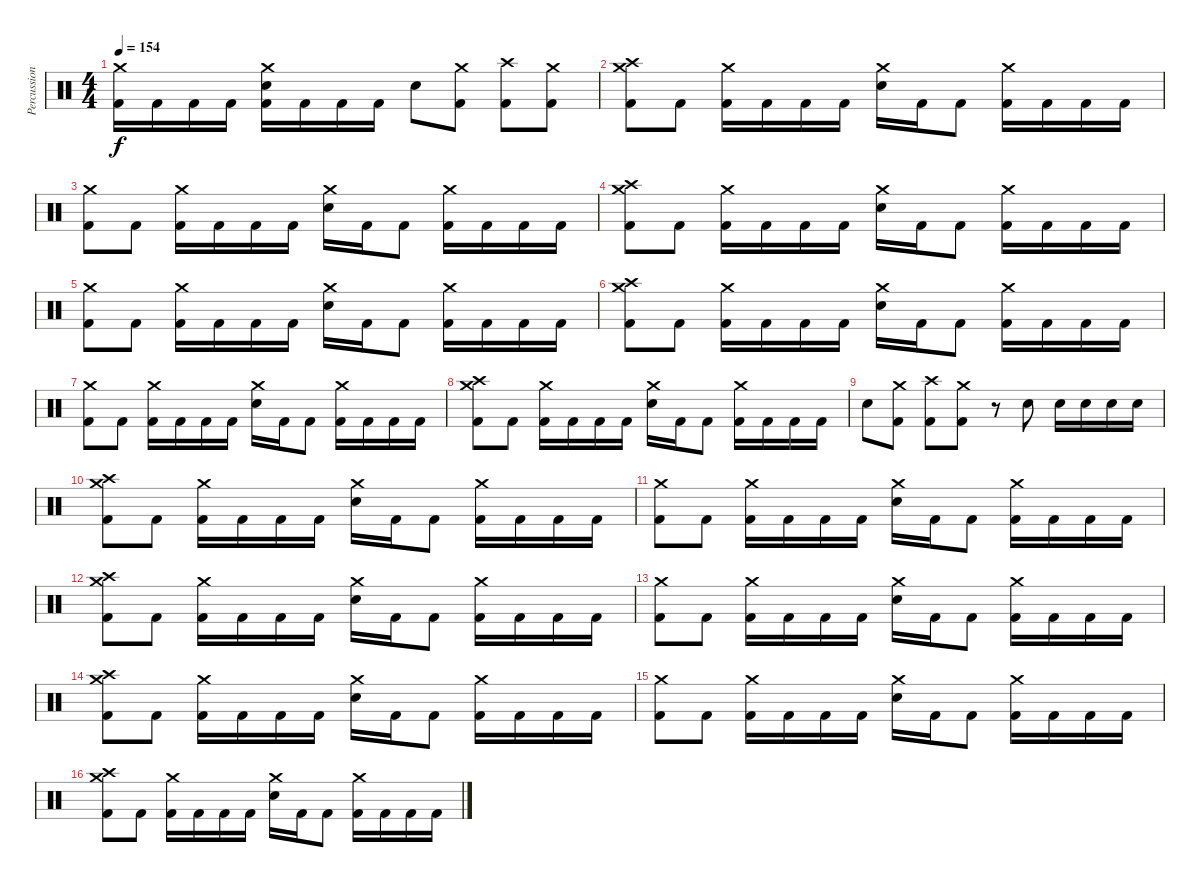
\track ("Percussion" "Percussion") {instrument percussion bank 128}
\staff {score}
\articulation defaults
\ts (4 4)
\tempo 154
\clef neutral
\ks c
("Crash medium (hit)" "Kick (hit) 2").16{dy f} "Kick (hit) 2".16 "Kick (hit) 2".16 "Kick (hit) 2".16 ("Crash medium (hit)" "Snare (hit) 2" "Kick (hit) 2").16 "Kick (hit) 2".16 "Kick (hit) 2".16 "Kick (hit) 2".16 "Snare (hit) 2".8 ("Crash medium (hit)" "Kick (hit) 2").8 ("Crash high (hit)" "Kick (hit) 2").8 ("Crash medium (hit)" "Kick (hit) 2").8 |
("Crash high (hit)" "Crash medium (hit)" "Kick (hit) 2").8 "Kick (hit) 2".8 ("Crash medium (hit)" "Kick (hit) 2").16 "Kick (hit) 2".16 "Kick (hit) 2".16 "Kick (hit) 2".16 ("Crash medium (hit)" "Snare (hit) 2").16 "Kick (hit) 2".16 "Kick (hit) 2".8 ("Crash medium (hit)" "Kick (hit) 2").16 "Kick (hit) 2".16 "Kick (hit) 2".16 "Kick (hit) 2".16 |
("Crash medium (hit)" "Kick (hit) 2").8 "Kick (hit) 2".8 ("Crash medium (hit)" "Kick (hit) 2").16 "Kick (hit) 2".16 "Kick (hit) 2".16 "Kick (hit) 2".16 ("Crash medium (hit)" "Snare (hit) 2").16 "Kick (hit) 2".16 "Kick (hit) 2".8 ("Crash medium (hit)" "Kick (hit) 2").16 "Kick (hit) 2".16 "Kick (hit) 2".16 "Kick (hit) 2".16 |
("Crash high (hit)" "Crash medium (hit)" "Kick (hit) 2").8 "Kick (hit) 2".8 ("Crash medium (hit)" "Kick (hit) 2").16 "Kick (hit) 2".16 "Kick (hit) 2".16 "Kick (hit) 2".16 ("Crash medium (hit)" "Snare (hit) 2").16 "Kick (hit) 2".16 "Kick (hit) 2".8 ("Crash medium (hit)" "Kick (hit) 2").16 "Kick (hit) 2".16 "Kick (hit) 2".16 "Kick (hit) 2".16 |
("Crash medium (hit)" "Kick (hit) 2").8 "Kick (hit) 2".8 ("Crash medium (hit)" "Kick (hit) 2").16 "Kick (hit) 2".16 "Kick (hit) 2".16 "Kick (hit) 2".16 ("Crash medium (hit)" "Snare (hit) 2").16 "Kick (hit) 2".16 "Kick (hit) 2".8 ("Crash medium (hit)" "Kick (hit) 2").16 "Kick (hit) 2".16 "Kick (hit) 2".16 "Kick (hit) 2".16 |
("Crash high (hit)" "Crash medium (hit)" "Kick (hit) 2").8 "Kick (hit) 2".8 ("Crash medium (hit)" "Kick (hit) 2").16 "Kick (hit) 2".16 "Kick (hit) 2".16 "Kick (hit) 2".16 ("Crash medium (hit)" "Snare (hit) 2").16 "Kick (hit) 2".16 "Kick (hit) 2".8 ("Crash medium (hit)" "Kick (hit) 2").16 "Kick (hit) 2".16 "Kick (hit) 2".16 "Kick (hit) 2".16 |
("Crash medium (hit)" "Kick (hit) 2").8 "Kick (hit) 2".8 ("Crash medium (hit)" "Kick (hit) 2").16 "Kick (hit) 2".16 "Kick (hit) 2".16 "Kick (hit) 2".16 ("Crash medium (hit)" "Snare (hit) 2").16 "Kick (hit) 2".16 "Kick (hit) 2".8 ("Crash medium (hit)" "Kick (hit) 2").16 "Kick (hit) 2".16 "Kick (hit) 2".16 "Kick (hit) 2".16 |
("Crash high (hit)" "Crash medium (hit)" "Kick (hit) 2").8 "Kick (hit) 2".8 ("Crash medium (hit)" "Kick (hit) 2").16 "Kick (hit) 2".16 "Kick (hit) 2".16 "Kick (hit) 2".16 ("Crash medium (hit)" "Snare (hit) 2").16 "Kick (hit) 2".16 "Kick (hit) 2".8 ("Crash medium (hit)" "Kick (hit) 2").16 "Kick (hit) 2".16 "Kick (hit) 2".16 "Kick (hit) 2".16 |
"Snare (hit) 2".8 ("Crash medium (hit)" "Kick (hit) 2").8 ("Crash high (hit)" "Kick (hit) 2").8 ("Crash medium (hit)" "Kick (hit) 2").8 r.8 "Snare (hit) 2".8 "Snare (hit) 2".16 "Snare (hit) 2".16 "Snare (hit) 2".16 "Snare (hit) 2".16 |
("Crash high (hit)" "Crash medium (hit)" "Kick (hit) 2").8 "Kick (hit) 2".8 ("Crash medium (hit)" "Kick (hit) 2").16 "Kick (hit) 2".16 "Kick (hit) 2".16 "Kick (hit) 2".16 ("Crash medium (hit)" "Snare (hit) 2").16 "Kick (hit) 2".16 "Kick (hit) 2".8 ("Crash medium (hit)" "Kick (hit) 2").16 "Kick (hit) 2".16 "Kick (hit) 2".16 "Kick (hit) 2".16 |
("Crash medium (hit)" "Kick (hit) 2").8 "Kick (hit) 2".8 ("Crash medium (hit)" "Kick (hit) 2").16 "Kick (hit) 2".16 "Kick (hit) 2".16 "Kick (hit) 2".16 ("Crash medium (hit)" "Snare (hit) 2").16 "Kick (hit) 2".16 "Kick (hit) 2".8 ("Crash medium (hit)" "Kick (hit) 2").16 "Kick (hit) 2".16 "Kick (hit) 2".16 "Kick (hit) 2".16 |
("Crash high (hit)" "Crash medium (hit)" "Kick (hit) 2").8 "Kick (hit) 2".8 ("Crash medium (hit)" "Kick (hit) 2").16 "Kick (hit) 2".16 "Kick (hit) 2".16 "Kick (hit) 2".16 ("Crash medium (hit)" "Snare (hit) 2").16 "Kick (hit) 2".16 "Kick (hit) 2".8 ("Crash medium (hit)" "Kick (hit) 2").16 "Kick (hit) 2".16 "Kick (hit) 2".16 "Kick (hit) 2".16 |
("Crash medium (hit)" "Kick (hit) 2").8 "Kick (hit) 2".8 ("Crash medium (hit)" "Kick (hit) 2").16 "Kick (hit) 2".16 "Kick (hit) 2".16 "Kick (hit) 2".16 ("Crash medium (hit)" "Snare (hit) 2").16 "Kick (hit) 2".16 "Kick (hit) 2".8 ("Crash medium (hit)" "Kick (hit) 2").16 "Kick (hit) 2".16 "Kick (hit) 2".16 "Kick (hit) 2".16 |
("Crash high (hit)" "Crash medium (hit)" "Kick (hit) 2").8 "Kick (hit) 2".8 ("Crash medium (hit)" "Kick (hit) 2").16 "Kick (hit) 2".16 "Kick (hit) 2".16 "Kick (hit) 2".16 ("Crash medium (hit)" "Snare (hit) 2").16 "Kick (hit) 2".16 "Kick (hit) 2".8 ("Crash medium (hit)" "Kick (hit) 2").16 "Kick (hit) 2".16 "Kick (hit) 2".16 "Kick (hit) 2".16 |
("Crash medium (hit)" "Kick (hit) 2").8 "Kick (hit) 2".8 ("Crash medium (hit)" "Kick (hit) 2").16 "Kick (hit) 2".16 "Kick (hit) 2".16 "Kick (hit) 2".16 ("Crash medium (hit)" "Snare (hit) 2").16 "Kick (hit) 2".16 "Kick (hit) 2".8 ("Crash medium (hit)" "Kick (hit) 2").16 "Kick (hit) 2".16 "Kick (hit) 2".16 "Kick (hit) 2".16 |
("Crash high (hit)" "Crash medium (hit)" "Kick (hit) 2").8 "Kick (hit) 2".8 ("Crash medium (hit)" "Kick (hit) 2").16 "Kick (hit) 2".16 "Kick (hit) 2".16 "Kick (hit) 2".16 ("Crash medium (hit)" "Snare (hit) 2").16 "Kick (hit) 2".16 "Kick (hit) 2".8 ("Crash medium (hit)" "Kick (hit) 2").16 "Kick (hit) 2".16 "Kick (hit) 2".16 "Kick (hit) 2".16
